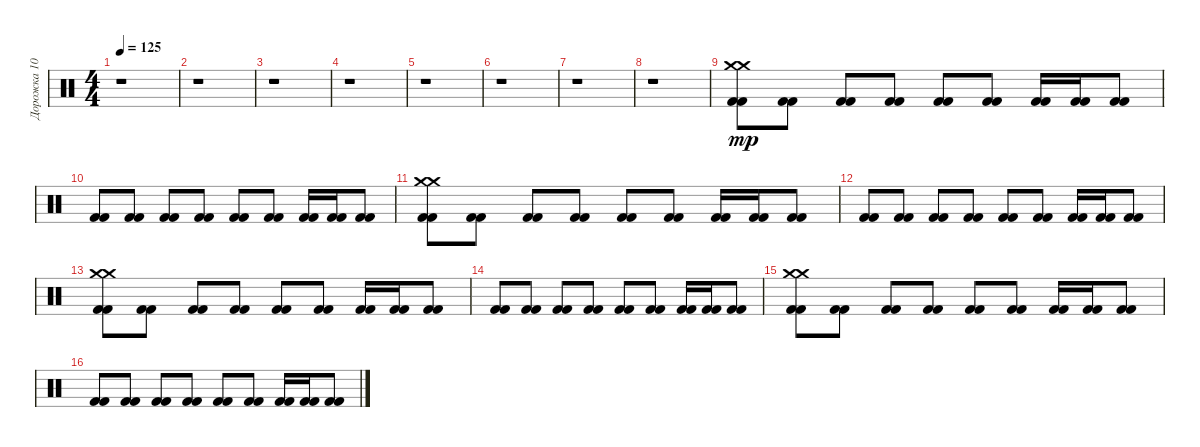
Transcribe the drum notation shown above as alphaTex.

\track ("Дорожка 10" "Дорожка 10") {instrument percussion}
\staff {score}
\articulation defaults
\ts (4 4)
\tempo 125
\clef neutral
\ks c
r.1{dy mp} |
r.1 |
r.1 |
r.1 |
r.1 |
r.1 |
r.1 |
r.1 |
("Kick (hit) 2" "Crash medium (hit)" "Kick (hit) 2" "Crash medium (hit)").8 ("Kick (hit) 2" "Kick (hit) 2").8 ("Kick (hit) 2" "Kick (hit) 2").8 ("Kick (hit) 2" "Kick (hit) 2").8 ("Kick (hit) 2" "Kick (hit) 2").8 ("Kick (hit) 2" "Kick (hit) 2").8 ("Kick (hit) 2" "Kick (hit) 2").16 ("Kick (hit) 2" "Kick (hit) 2").16 ("Kick (hit) 2" "Kick (hit) 2").8 |
("Kick (hit) 2" "Kick (hit) 2").8 ("Kick (hit) 2" "Kick (hit) 2").8 ("Kick (hit) 2" "Kick (hit) 2").8 ("Kick (hit) 2" "Kick (hit) 2").8 ("Kick (hit) 2" "Kick (hit) 2").8 ("Kick (hit) 2" "Kick (hit) 2").8 ("Kick (hit) 2" "Kick (hit) 2").16 ("Kick (hit) 2" "Kick (hit) 2").16 ("Kick (hit) 2" "Kick (hit) 2").8 |
("Kick (hit) 2" "Crash medium (hit)" "Kick (hit) 2" "Crash medium (hit)").8 ("Kick (hit) 2" "Kick (hit) 2").8 ("Kick (hit) 2" "Kick (hit) 2").8 ("Kick (hit) 2" "Kick (hit) 2").8 ("Kick (hit) 2" "Kick (hit) 2").8 ("Kick (hit) 2" "Kick (hit) 2").8 ("Kick (hit) 2" "Kick (hit) 2").16 ("Kick (hit) 2" "Kick (hit) 2").16 ("Kick (hit) 2" "Kick (hit) 2").8 |
("Kick (hit) 2" "Kick (hit) 2").8 ("Kick (hit) 2" "Kick (hit) 2").8 ("Kick (hit) 2" "Kick (hit) 2").8 ("Kick (hit) 2" "Kick (hit) 2").8 ("Kick (hit) 2" "Kick (hit) 2").8 ("Kick (hit) 2" "Kick (hit) 2").8 ("Kick (hit) 2" "Kick (hit) 2").16 ("Kick (hit) 2" "Kick (hit) 2").16 ("Kick (hit) 2" "Kick (hit) 2").8 |
("Kick (hit) 2" "Crash medium (hit)" "Kick (hit) 2" "Crash medium (hit)").8 ("Kick (hit) 2" "Kick (hit) 2").8 ("Kick (hit) 2" "Kick (hit) 2").8 ("Kick (hit) 2" "Kick (hit) 2").8 ("Kick (hit) 2" "Kick (hit) 2").8 ("Kick (hit) 2" "Kick (hit) 2").8 ("Kick (hit) 2" "Kick (hit) 2").16 ("Kick (hit) 2" "Kick (hit) 2").16 ("Kick (hit) 2" "Kick (hit) 2").8 |
("Kick (hit) 2" "Kick (hit) 2").8 ("Kick (hit) 2" "Kick (hit) 2").8 ("Kick (hit) 2" "Kick (hit) 2").8 ("Kick (hit) 2" "Kick (hit) 2").8 ("Kick (hit) 2" "Kick (hit) 2").8 ("Kick (hit) 2" "Kick (hit) 2").8 ("Kick (hit) 2" "Kick (hit) 2").16 ("Kick (hit) 2" "Kick (hit) 2").16 ("Kick (hit) 2" "Kick (hit) 2").8 |
("Kick (hit) 2" "Crash medium (hit)" "Kick (hit) 2" "Crash medium (hit)").8 ("Kick (hit) 2" "Kick (hit) 2").8 ("Kick (hit) 2" "Kick (hit) 2").8 ("Kick (hit) 2" "Kick (hit) 2").8 ("Kick (hit) 2" "Kick (hit) 2").8 ("Kick (hit) 2" "Kick (hit) 2").8 ("Kick (hit) 2" "Kick (hit) 2").16 ("Kick (hit) 2" "Kick (hit) 2").16 ("Kick (hit) 2" "Kick (hit) 2").8 |
("Kick (hit) 2" "Kick (hit) 2").8 ("Kick (hit) 2" "Kick (hit) 2").8 ("Kick (hit) 2" "Kick (hit) 2").8 ("Kick (hit) 2" "Kick (hit) 2").8 ("Kick (hit) 2" "Kick (hit) 2").8 ("Kick (hit) 2" "Kick (hit) 2").8 ("Kick (hit) 2" "Kick (hit) 2").16 ("Kick (hit) 2" "Kick (hit) 2").16 ("Kick (hit) 2" "Kick (hit) 2").8
